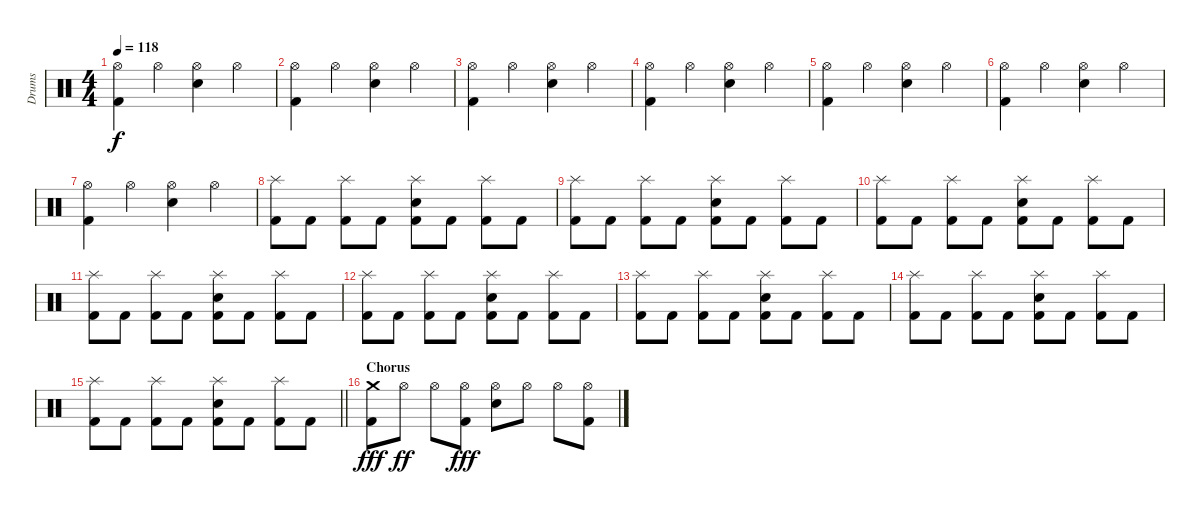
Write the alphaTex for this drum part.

\track ("Drums" "Drums") {instrument percussion}
\staff {score}
\articulation defaults
\ts (4 4)
\tempo 118
\clef neutral
\ks c
("Hi-Hat (open)" "Kick (hit) 2").4{dy f} "Hi-Hat (open)".4 ("Hi-Hat (open)" "Electric Snare (hit)").4 "Hi-Hat (open)".4 |
("Hi-Hat (open)" "Kick (hit) 2").4 "Hi-Hat (open)".4 ("Hi-Hat (open)" "Electric Snare (hit)").4 "Hi-Hat (open)".4 |
("Hi-Hat (open)" "Kick (hit) 2").4 "Hi-Hat (open)".4 ("Hi-Hat (open)" "Electric Snare (hit)").4 "Hi-Hat (open)".4 |
("Hi-Hat (open)" "Kick (hit) 2").4 "Hi-Hat (open)".4 ("Hi-Hat (open)" "Electric Snare (hit)").4 "Hi-Hat (open)".4 |
("Hi-Hat (open)" "Kick (hit) 2").4 "Hi-Hat (open)".4 ("Hi-Hat (open)" "Electric Snare (hit)").4 "Hi-Hat (open)".4 |
("Hi-Hat (open)" "Kick (hit) 2").4 "Hi-Hat (open)".4 ("Hi-Hat (open)" "Electric Snare (hit)").4 "Hi-Hat (open)".4 |
("Hi-Hat (open)" "Kick (hit) 2").4 "Hi-Hat (open)".4 ("Hi-Hat (open)" "Electric Snare (hit)").4 "Hi-Hat (open)".4 |
("Splash (hit)" "Kick (hit) 2").8 "Kick (hit) 2".8 ("Splash (hit)" "Kick (hit) 2").8 "Kick (hit) 2".8 ("Splash (hit)" "Electric Snare (hit)" "Kick (hit) 2").8 "Kick (hit) 2".8 ("Splash (hit)" "Kick (hit) 2").8 "Kick (hit) 2".8 |
("Splash (hit)" "Kick (hit) 2").8 "Kick (hit) 2".8 ("Splash (hit)" "Kick (hit) 2").8 "Kick (hit) 2".8 ("Splash (hit)" "Electric Snare (hit)" "Kick (hit) 2").8 "Kick (hit) 2".8 ("Splash (hit)" "Kick (hit) 2").8 "Kick (hit) 2".8 |
("Splash (hit)" "Kick (hit) 2").8 "Kick (hit) 2".8 ("Splash (hit)" "Kick (hit) 2").8 "Kick (hit) 2".8 ("Splash (hit)" "Electric Snare (hit)" "Kick (hit) 2").8 "Kick (hit) 2".8 ("Splash (hit)" "Kick (hit) 2").8 "Kick (hit) 2".8 |
("Splash (hit)" "Kick (hit) 2").8 "Kick (hit) 2".8 ("Splash (hit)" "Kick (hit) 2").8 "Kick (hit) 2".8 ("Splash (hit)" "Electric Snare (hit)" "Kick (hit) 2").8 "Kick (hit) 2".8 ("Splash (hit)" "Kick (hit) 2").8 "Kick (hit) 2".8 |
("Splash (hit)" "Kick (hit) 2").8 "Kick (hit) 2".8 ("Splash (hit)" "Kick (hit) 2").8 "Kick (hit) 2".8 ("Splash (hit)" "Electric Snare (hit)" "Kick (hit) 2").8 "Kick (hit) 2".8 ("Splash (hit)" "Kick (hit) 2").8 "Kick (hit) 2".8 |
("Splash (hit)" "Kick (hit) 2").8 "Kick (hit) 2".8 ("Splash (hit)" "Kick (hit) 2").8 "Kick (hit) 2".8 ("Splash (hit)" "Electric Snare (hit)" "Kick (hit) 2").8 "Kick (hit) 2".8 ("Splash (hit)" "Kick (hit) 2").8 "Kick (hit) 2".8 |
("Splash (hit)" "Kick (hit) 2").8 "Kick (hit) 2".8 ("Splash (hit)" "Kick (hit) 2").8 "Kick (hit) 2".8 ("Splash (hit)" "Electric Snare (hit)" "Kick (hit) 2").8 "Kick (hit) 2".8 ("Splash (hit)" "Kick (hit) 2").8 "Kick (hit) 2".8 |
\barLineRight lightlight
("Splash (hit)" "Kick (hit) 2").8 "Kick (hit) 2".8 ("Splash (hit)" "Kick (hit) 2").8 "Kick (hit) 2".8 ("Splash (hit)" "Electric Snare (hit)" "Kick (hit) 2").8 "Kick (hit) 2".8 ("Splash (hit)" "Kick (hit) 2").8 "Kick (hit) 2".8 |
\section ("" "Chorus")
("Crash medium (hit)" "Kick (hit) 2").8{dy fff} "Hi-Hat (open)".8{dy ff} "Hi-Hat (open)".8 ("Hi-Hat (open)" "Kick (hit) 2").8{dy fff} ("Hi-Hat (open)" "Electric Snare (hit)").8 "Hi-Hat (open)".8 "Hi-Hat (open)".8 ("Hi-Hat (open)" "Kick (hit) 2").8
